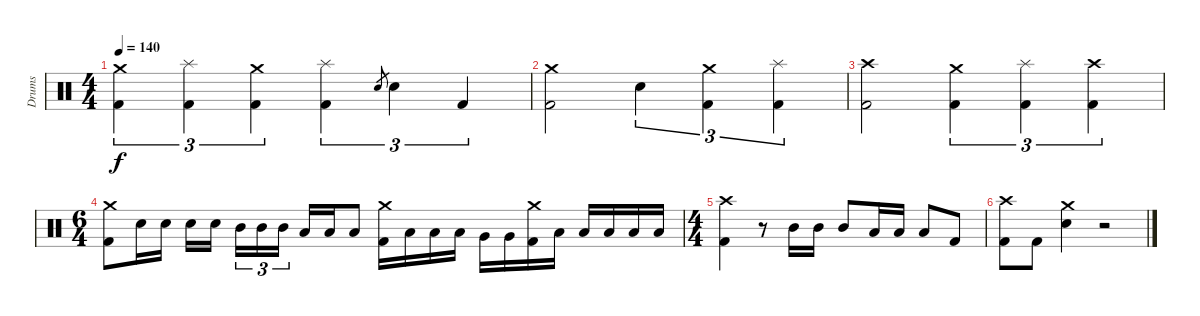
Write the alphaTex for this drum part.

\track ("Drums" "Drums") {instrument percussion}
\staff {score}
\articulation defaults
\ts (4 4)
\tempo 140
\clef neutral
\ks c
("Crash medium (hit)" "Kick (hit) 2").4{tu (3 2) dy f} ("Splash (hit)" "Kick (hit) 2").4{tu (3 2)} ("Crash medium (hit)" "Kick (hit) 2").4{tu (3 2)} ("Splash (hit)" "Kick (hit) 2").4{tu (3 2)} "Electric Snare (hit)".8{gr} "Electric Snare (hit)".4{tu (3 2)} "Kick (hit) 2".4{tu (3 2)} |
("Crash medium (hit)" "Kick (hit) 2").2 "Electric Snare (hit)".4{tu (3 2)} ("Crash medium (hit)" "Kick (hit) 2").4{tu (3 2)} ("Splash (hit)" "Kick (hit) 2").4{tu (3 2)} |
("Crash high (hit)" "Kick (hit) 2").2 ("Crash medium (hit)" "Kick (hit) 2").4{tu (3 2)} ("Splash (hit)" "Kick (hit) 2").4{tu (3 2)} ("Crash high (hit)" "Kick (hit) 2").4{tu (3 2)} |
\ts (6 4)
("Crash medium (hit)" "Kick (hit) 2").8 "Electric Snare (hit)".16 "Electric Snare (hit)".16 "Electric Snare (hit)".16 "Electric Snare (hit)".16{beam splitsecondary} "Mid Tom (hit)".16{tu (3 2)} "Mid Tom (hit)".16{tu (3 2)} "Mid Tom (hit)".16{tu (3 2) beam splitsecondary} "Low Tom (hit)".16 "Low Tom (hit)".16 "Low Tom (hit)".8 ("Crash medium (hit)" "Kick (hit) 2").16 "Low Tom (hit)".16 "Low Tom (hit)".16 "Low Tom (hit)".16 "Very Low Tom (hit)".16 "Very Low Tom (hit)".16 ("Crash medium (hit)" "Kick (hit) 2").16 "Low Floor Tom (hit)".16 "Low Floor Tom (hit)".16 "Low Floor Tom (hit)".16 "Low Floor Tom (hit)".16 "Low Floor Tom (hit)".16 |
\ts (4 4)
("Crash high (hit)" "Kick (hit) 2").4 r.8 "Mid Tom (hit)".16 "Mid Tom (hit)".16 "Mid Tom (hit)".8 "Low Tom (hit)".16 "Low Tom (hit)".16 "Low Tom (hit)".8 "Kick (hit) 2".8 |
("Crash high (hit)" "Kick (hit) 2").8 "Kick (hit) 2".8 ("Crash medium (hit)" "Electric Snare (hit)").4 r.2
